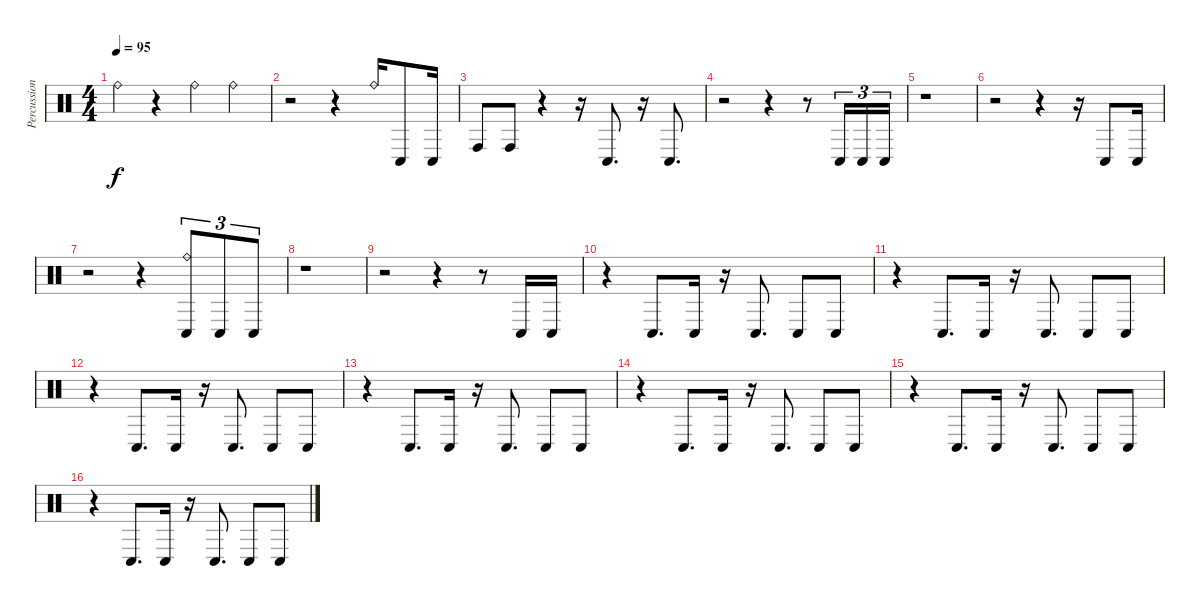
\track ("Percussion" "Percussion") {instrument percussion}
\staff {score}
\articulation defaults
\ts (4 4)
\tempo 95
\clef neutral
\ks c "Ride (bell)".4{dy f}
r.4 "Ride (bell)".4 "Ride (bell)".4 |
r.2 r.4 "Ride (bell)".16 "Conga low (hit)".8 "Conga low (hit)".16 |
"Conga high (hit)".8 "Conga high (hit)".8 r.4 r.16 "Conga low (hit)".8{d} r.16 "Conga low (hit)".8{d} |
r.2 r.4 r.8 "Conga low (hit)".16{tu (3 2)} "Conga low (hit)".16{tu (3 2)} "Conga low (hit)".16{tu (3 2)} |
r.1 |
r.2 r.4 r.16 "Conga low (hit)".8 "Conga low (hit)".16 |
r.2 r.4 ("Ride (bell)" "Conga low (hit)").8{tu (3 2)} "Conga low (hit)".8{tu (3 2)} "Conga low (hit)".8{tu (3 2)} |
r.1 |
r.2 r.4 r.8 "Conga low (hit)".16 "Conga low (hit)".16 |
r.4 "Conga low (hit)".8{d} "Conga low (hit)".16 r.16 "Conga low (hit)".8{d} "Conga low (hit)".8 "Conga low (hit)".8 |
r.4 "Conga low (hit)".8{d} "Conga low (hit)".16 r.16 "Conga low (hit)".8{d} "Conga low (hit)".8 "Conga low (hit)".8 |
r.4 "Conga low (hit)".8{d} "Conga low (hit)".16 r.16 "Conga low (hit)".8{d} "Conga low (hit)".8 "Conga low (hit)".8 |
r.4 "Conga low (hit)".8{d} "Conga low (hit)".16 r.16 "Conga low (hit)".8{d} "Conga low (hit)".8 "Conga low (hit)".8 |
r.4 "Conga low (hit)".8{d} "Conga low (hit)".16 r.16 "Conga low (hit)".8{d} "Conga low (hit)".8 "Conga low (hit)".8 |
r.4 "Conga low (hit)".8{d} "Conga low (hit)".16 r.16 "Conga low (hit)".8{d} "Conga low (hit)".8 "Conga low (hit)".8 |
r.4 "Conga low (hit)".8{d} "Conga low (hit)".16 r.16 "Conga low (hit)".8{d} "Conga low (hit)".8 "Conga low (hit)".8
